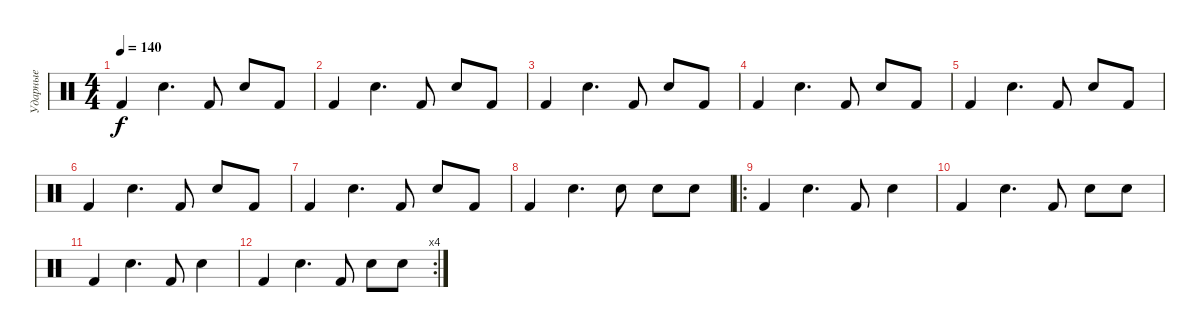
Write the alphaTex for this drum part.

\track ("Ударные" "Ударные") {instrument percussion}
\staff {score}
\articulation defaults
\ts (4 4)
\tempo 140
\clef neutral
\ks c "Kick (hit) 2".4{dy f} "Electric Snare (hit)".4{d} "Kick (hit) 2".8 "Electric Snare (hit)".8 "Kick (hit) 2".8
|
"Kick (hit) 2".4 "Electric Snare (hit)".4{d} "Kick (hit) 2".8 "Electric Snare (hit)".8 "Kick (hit) 2".8 |
"Kick (hit) 2".4 "Electric Snare (hit)".4{d} "Kick (hit) 2".8 "Electric Snare (hit)".8 "Kick (hit) 2".8 |
"Kick (hit) 2".4 "Electric Snare (hit)".4{d} "Kick (hit) 2".8 "Electric Snare (hit)".8 "Kick (hit) 2".8 |
"Kick (hit) 2".4 "Electric Snare (hit)".4{d} "Kick (hit) 2".8 "Electric Snare (hit)".8 "Kick (hit) 2".8 |
"Kick (hit) 2".4 "Electric Snare (hit)".4{d} "Kick (hit) 2".8 "Electric Snare (hit)".8 "Kick (hit) 2".8 |
"Kick (hit) 2".4 "Electric Snare (hit)".4{d} "Kick (hit) 2".8 "Electric Snare (hit)".8 "Kick (hit) 2".8 |
"Kick (hit) 2".4 "Electric Snare (hit)".4{d} "Electric Snare (hit)".8 "Electric Snare (hit)".8 "Electric Snare (hit)".8 |
\ro "Kick (hit) 2".4 "Electric Snare (hit)".4{d} "Kick (hit) 2".8 "Electric Snare (hit)".4
|
"Kick (hit) 2".4 "Electric Snare (hit)".4{d} "Kick (hit) 2".8 "Electric Snare (hit)".8 "Electric Snare (hit)".8 |
"Kick (hit) 2".4 "Electric Snare (hit)".4{d} "Kick (hit) 2".8 "Electric Snare (hit)".4 |
\rc 4 "Kick (hit) 2".4 "Electric Snare (hit)".4{d} "Kick (hit) 2".8 "Electric Snare (hit)".8 "Electric Snare (hit)".8
